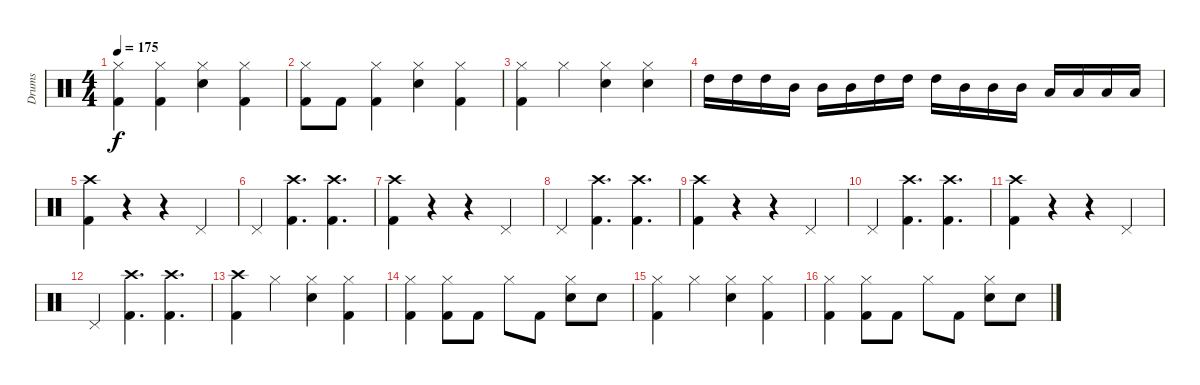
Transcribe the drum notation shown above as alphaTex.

\track ("Drums" "Drums") {mute instrument percussion}
\staff {score}
\articulation defaults
\ts (4 4)
\tempo 175
\clef neutral
\ks c
("Hi-Hat (closed)" "Kick (hit) 2").4{dy f} ("Hi-Hat (closed)" "Kick (hit) 2").4 ("Hi-Hat (closed)" "Electric Snare (hit)").4 ("Hi-Hat (closed)" "Kick (hit) 2").4 |
("Hi-Hat (closed)" "Kick (hit) 2").8 "Kick (hit) 2".8 ("Hi-Hat (closed)" "Kick (hit) 2").4 ("Hi-Hat (closed)" "Electric Snare (hit)").4 ("Hi-Hat (closed)" "Kick (hit) 2").4 |
("Hi-Hat (closed)" "Kick (hit) 2").4 "Hi-Hat (closed)".4 ("Hi-Hat (closed)" "Electric Snare (hit)").4 ("Hi-Hat (closed)" "Electric Snare (hit)").4 |
"High Tom (hit)".16 "High Tom (hit)".16 "High Tom (hit)".16 "Mid Tom (hit)".16 "Mid Tom (hit)".16 "Mid Tom (hit)".16 "High Tom (hit)".16 "High Tom (hit)".16 "High Tom (hit)".16 "Mid Tom (hit)".16 "Mid Tom (hit)".16 "Mid Tom (hit)".16 "Low Tom (hit)".16 "Low Tom (hit)".16 "Low Tom (hit)".16 "Low Tom (hit)".16 |
("Crash high (hit)" "Kick (hit) 2").4 r.4 r.4 "Pedal Hi-Hat (hit)".4 |
"Pedal Hi-Hat (hit)".4 ("Crash high (hit)" "Kick (hit) 2").4{d} ("Crash high (hit)" "Kick (hit) 2").4{d} |
("Crash high (hit)" "Kick (hit) 2").4 r.4 r.4 "Pedal Hi-Hat (hit)".4 |
"Pedal Hi-Hat (hit)".4 ("Crash high (hit)" "Kick (hit) 2").4{d} ("Crash high (hit)" "Kick (hit) 2").4{d} |
("Crash high (hit)" "Kick (hit) 2").4 r.4 r.4 "Pedal Hi-Hat (hit)".4 |
"Pedal Hi-Hat (hit)".4 ("Crash high (hit)" "Kick (hit) 2").4{d} ("Crash high (hit)" "Kick (hit) 2").4{d} |
("Crash high (hit)" "Kick (hit) 2").4 r.4 r.4 "Pedal Hi-Hat (hit)".4 |
"Pedal Hi-Hat (hit)".4 ("Crash high (hit)" "Kick (hit) 2").4{d} ("Crash high (hit)" "Kick (hit) 2").4{d} |
("Crash high (hit)" "Kick (hit) 2").4 "Hi-Hat (closed)".4 ("Hi-Hat (closed)" "Electric Snare (hit)").4 ("Hi-Hat (closed)" "Kick (hit) 2").4 |
("Hi-Hat (closed)" "Kick (hit) 2").4 ("Hi-Hat (closed)" "Kick (hit) 2").8 "Kick (hit) 2".8 "Hi-Hat (closed)".8 "Kick (hit) 2".8 ("Hi-Hat (closed)" "Electric Snare (hit)").8 "Electric Snare (hit)".8 |
("Hi-Hat (closed)" "Kick (hit) 2").4 "Hi-Hat (closed)".4 ("Hi-Hat (closed)" "Electric Snare (hit)").4 ("Hi-Hat (closed)" "Kick (hit) 2").4 |
("Hi-Hat (closed)" "Kick (hit) 2").4 ("Hi-Hat (closed)" "Kick (hit) 2").8 "Kick (hit) 2".8 "Hi-Hat (closed)".8 "Kick (hit) 2".8 ("Hi-Hat (closed)" "Electric Snare (hit)").8 "Electric Snare (hit)".8
